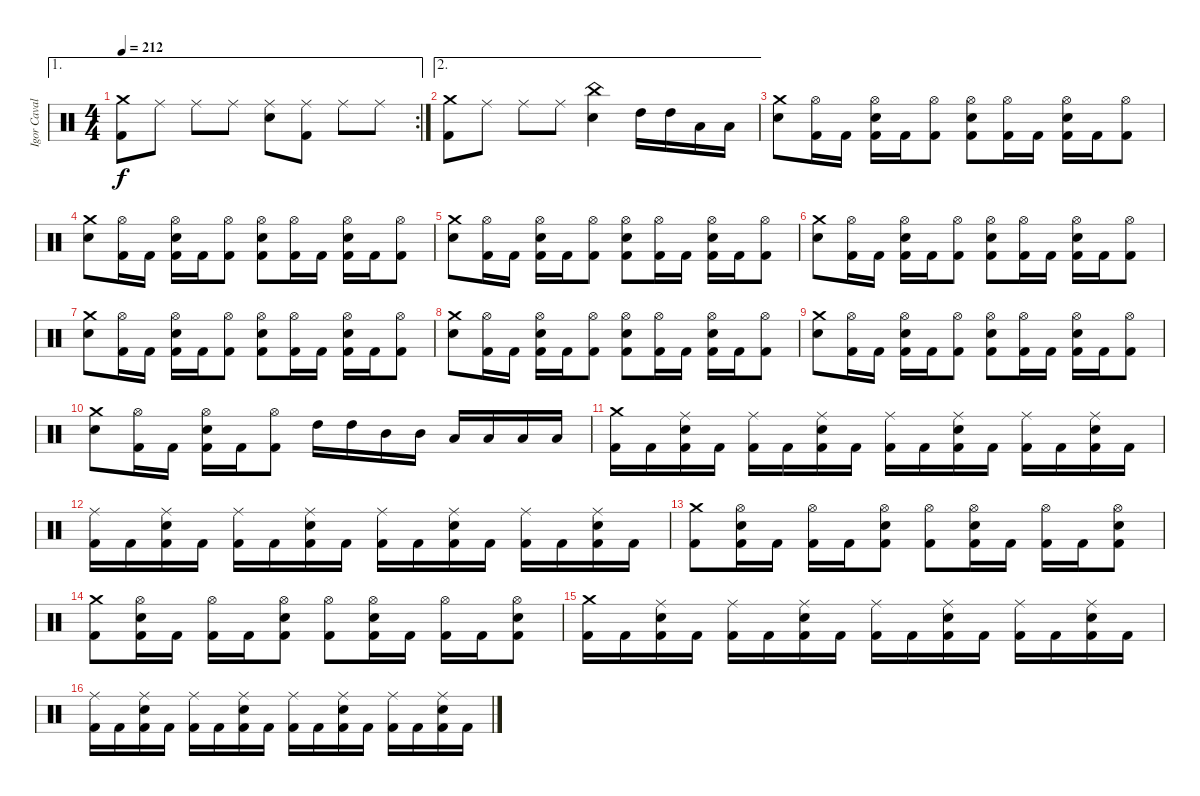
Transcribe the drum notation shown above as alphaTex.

\track ("Igor Cavalera" "Igor Caval") {instrument percussion}
\staff {score}
\articulation defaults
\ae 1
\rc 2
\ts (4 4)
\tempo 212
\clef neutral
\ks c
("Crash medium (hit)" "Kick (hit) 2").8{dy f} "Ride (middle)".8 "Ride (middle)".8 "Ride (middle)".8 ("Snare (hit) 2" "Ride (middle)").8 ("Kick (hit) 2" "Ride (middle)").8 "Ride (middle)".8 "Ride (middle)".8 |
\ae 2
("Kick (hit) 2" "Crash medium (hit)").8 "Ride (middle)".8 "Ride (middle)".8 "Ride (middle)".8 ("China (hit)" "Snare (hit) 2").4 "High Tom (hit)".16 "High Tom (hit)".16 "Low Tom (hit)".16 "Low Tom (hit)".16 |
("Crash medium (hit)" "Snare (hit) 2").8 ("Hi-Hat (open)" "Kick (hit) 2").16 "Kick (hit) 2".16 ("Hi-Hat (open)" "Snare (hit) 2" "Kick (hit) 2").16 "Kick (hit) 2".16 ("Hi-Hat (open)" "Kick (hit) 2").8 ("Hi-Hat (open)" "Snare (hit) 2" "Kick (hit) 2").8 ("Hi-Hat (open)" "Kick (hit) 2").16 "Kick (hit) 2".16 ("Hi-Hat (open)" "Snare (hit) 2" "Kick (hit) 2").16 "Kick (hit) 2".16 ("Hi-Hat (open)" "Kick (hit) 2").8 |
("Crash medium (hit)" "Snare (hit) 2").8 ("Hi-Hat (open)" "Kick (hit) 2").16 "Kick (hit) 2".16 ("Hi-Hat (open)" "Snare (hit) 2" "Kick (hit) 2").16 "Kick (hit) 2".16 ("Hi-Hat (open)" "Kick (hit) 2").8 ("Hi-Hat (open)" "Snare (hit) 2" "Kick (hit) 2").8 ("Hi-Hat (open)" "Kick (hit) 2").16 "Kick (hit) 2".16 ("Hi-Hat (open)" "Snare (hit) 2" "Kick (hit) 2").16 "Kick (hit) 2".16 ("Hi-Hat (open)" "Kick (hit) 2").8 |
("Crash medium (hit)" "Snare (hit) 2").8 ("Hi-Hat (open)" "Kick (hit) 2").16 "Kick (hit) 2".16 ("Hi-Hat (open)" "Snare (hit) 2" "Kick (hit) 2").16 "Kick (hit) 2".16 ("Hi-Hat (open)" "Kick (hit) 2").8 ("Hi-Hat (open)" "Snare (hit) 2" "Kick (hit) 2").8 ("Hi-Hat (open)" "Kick (hit) 2").16 "Kick (hit) 2".16 ("Hi-Hat (open)" "Snare (hit) 2" "Kick (hit) 2").16 "Kick (hit) 2".16 ("Hi-Hat (open)" "Kick (hit) 2").8 |
("Crash medium (hit)" "Snare (hit) 2").8 ("Hi-Hat (open)" "Kick (hit) 2").16 "Kick (hit) 2".16 ("Hi-Hat (open)" "Snare (hit) 2" "Kick (hit) 2").16 "Kick (hit) 2".16 ("Hi-Hat (open)" "Kick (hit) 2").8 ("Hi-Hat (open)" "Snare (hit) 2" "Kick (hit) 2").8 ("Hi-Hat (open)" "Kick (hit) 2").16 "Kick (hit) 2".16 ("Hi-Hat (open)" "Snare (hit) 2" "Kick (hit) 2").16 "Kick (hit) 2".16 ("Hi-Hat (open)" "Kick (hit) 2").8 |
("Crash medium (hit)" "Snare (hit) 2").8 ("Hi-Hat (open)" "Kick (hit) 2").16 "Kick (hit) 2".16 ("Hi-Hat (open)" "Snare (hit) 2" "Kick (hit) 2").16 "Kick (hit) 2".16 ("Hi-Hat (open)" "Kick (hit) 2").8 ("Hi-Hat (open)" "Snare (hit) 2" "Kick (hit) 2").8 ("Hi-Hat (open)" "Kick (hit) 2").16 "Kick (hit) 2".16 ("Hi-Hat (open)" "Snare (hit) 2" "Kick (hit) 2").16 "Kick (hit) 2".16 ("Hi-Hat (open)" "Kick (hit) 2").8 |
("Crash medium (hit)" "Snare (hit) 2").8 ("Hi-Hat (open)" "Kick (hit) 2").16 "Kick (hit) 2".16 ("Hi-Hat (open)" "Snare (hit) 2" "Kick (hit) 2").16 "Kick (hit) 2".16 ("Hi-Hat (open)" "Kick (hit) 2").8 ("Hi-Hat (open)" "Snare (hit) 2" "Kick (hit) 2").8 ("Hi-Hat (open)" "Kick (hit) 2").16 "Kick (hit) 2".16 ("Hi-Hat (open)" "Snare (hit) 2" "Kick (hit) 2").16 "Kick (hit) 2".16 ("Hi-Hat (open)" "Kick (hit) 2").8 |
("Crash medium (hit)" "Snare (hit) 2").8 ("Hi-Hat (open)" "Kick (hit) 2").16 "Kick (hit) 2".16 ("Hi-Hat (open)" "Snare (hit) 2" "Kick (hit) 2").16 "Kick (hit) 2".16 ("Hi-Hat (open)" "Kick (hit) 2").8 ("Hi-Hat (open)" "Snare (hit) 2" "Kick (hit) 2").8 ("Hi-Hat (open)" "Kick (hit) 2").16 "Kick (hit) 2".16 ("Hi-Hat (open)" "Snare (hit) 2" "Kick (hit) 2").16 "Kick (hit) 2".16 ("Hi-Hat (open)" "Kick (hit) 2").8 |
("Crash medium (hit)" "Snare (hit) 2").8 ("Hi-Hat (open)" "Kick (hit) 2").16 "Kick (hit) 2".16 ("Hi-Hat (open)" "Snare (hit) 2" "Kick (hit) 2").16 "Kick (hit) 2".16 ("Hi-Hat (open)" "Kick (hit) 2").8 "High Tom (hit)".16 "High Tom (hit)".16 "Mid Tom (hit)".16 "Mid Tom (hit)".16 "Low Tom (hit)".16 "Low Tom (hit)".16 "Low Tom (hit)".16 "Low Tom (hit)".16 |
("Crash medium (hit)" "Kick (hit) 2").16 "Kick (hit) 2".16 ("Ride (middle)" "Snare (hit) 2" "Kick (hit) 2").16 "Kick (hit) 2".16 ("Ride (middle)" "Kick (hit) 2").16 "Kick (hit) 2".16 ("Ride (middle)" "Snare (hit) 2" "Kick (hit) 2").16 "Kick (hit) 2".16 ("Ride (middle)" "Kick (hit) 2").16 "Kick (hit) 2".16 ("Ride (middle)" "Snare (hit) 2" "Kick (hit) 2").16 "Kick (hit) 2".16 ("Ride (middle)" "Kick (hit) 2").16 "Kick (hit) 2".16 ("Ride (middle)" "Snare (hit) 2" "Kick (hit) 2").16 "Kick (hit) 2".16 |
("Ride (middle)" "Kick (hit) 2").16 "Kick (hit) 2".16 ("Ride (middle)" "Snare (hit) 2" "Kick (hit) 2").16 "Kick (hit) 2".16 ("Ride (middle)" "Kick (hit) 2").16 "Kick (hit) 2".16 ("Ride (middle)" "Snare (hit) 2" "Kick (hit) 2").16 "Kick (hit) 2".16 ("Ride (middle)" "Kick (hit) 2").16 "Kick (hit) 2".16 ("Ride (middle)" "Snare (hit) 2" "Kick (hit) 2").16 "Kick (hit) 2".16 ("Ride (middle)" "Kick (hit) 2").16 "Kick (hit) 2".16 ("Ride (middle)" "Snare (hit) 2" "Kick (hit) 2").16 "Kick (hit) 2".16 |
("Crash medium (hit)" "Kick (hit) 2").8 ("Hi-Hat (open)" "Snare (hit) 2" "Kick (hit) 2").16 "Kick (hit) 2".16 ("Hi-Hat (open)" "Kick (hit) 2").16 "Kick (hit) 2".16 ("Hi-Hat (open)" "Snare (hit) 2" "Kick (hit) 2").8 ("Hi-Hat (open)" "Kick (hit) 2").8 ("Hi-Hat (open)" "Snare (hit) 2" "Kick (hit) 2").16 "Kick (hit) 2".16 ("Hi-Hat (open)" "Kick (hit) 2").16 "Kick (hit) 2".16 ("Hi-Hat (open)" "Snare (hit) 2" "Kick (hit) 2").8 |
("Crash medium (hit)" "Kick (hit) 2").8 ("Hi-Hat (open)" "Snare (hit) 2" "Kick (hit) 2").16 "Kick (hit) 2".16 ("Hi-Hat (open)" "Kick (hit) 2").16 "Kick (hit) 2".16 ("Hi-Hat (open)" "Snare (hit) 2" "Kick (hit) 2").8 ("Hi-Hat (open)" "Kick (hit) 2").8 ("Hi-Hat (open)" "Snare (hit) 2" "Kick (hit) 2").16 "Kick (hit) 2".16 ("Hi-Hat (open)" "Kick (hit) 2").16 "Kick (hit) 2".16 ("Hi-Hat (open)" "Snare (hit) 2" "Kick (hit) 2").8 |
("Crash medium (hit)" "Kick (hit) 2").16 "Kick (hit) 2".16 ("Ride (middle)" "Snare (hit) 2" "Kick (hit) 2").16 "Kick (hit) 2".16 ("Ride (middle)" "Kick (hit) 2").16 "Kick (hit) 2".16 ("Ride (middle)" "Snare (hit) 2" "Kick (hit) 2").16 "Kick (hit) 2".16 ("Ride (middle)" "Kick (hit) 2").16 "Kick (hit) 2".16 ("Ride (middle)" "Snare (hit) 2" "Kick (hit) 2").16 "Kick (hit) 2".16 ("Ride (middle)" "Kick (hit) 2").16 "Kick (hit) 2".16 ("Ride (middle)" "Snare (hit) 2" "Kick (hit) 2").16 "Kick (hit) 2".16 |
("Ride (middle)" "Kick (hit) 2").16 "Kick (hit) 2".16 ("Ride (middle)" "Snare (hit) 2" "Kick (hit) 2").16 "Kick (hit) 2".16 ("Ride (middle)" "Kick (hit) 2").16 "Kick (hit) 2".16 ("Ride (middle)" "Snare (hit) 2" "Kick (hit) 2").16 "Kick (hit) 2".16 ("Ride (middle)" "Kick (hit) 2").16 "Kick (hit) 2".16 ("Ride (middle)" "Snare (hit) 2" "Kick (hit) 2").16 "Kick (hit) 2".16 ("Ride (middle)" "Kick (hit) 2").16 "Kick (hit) 2".16 ("Ride (middle)" "Snare (hit) 2" "Kick (hit) 2").16 "Kick (hit) 2".16
